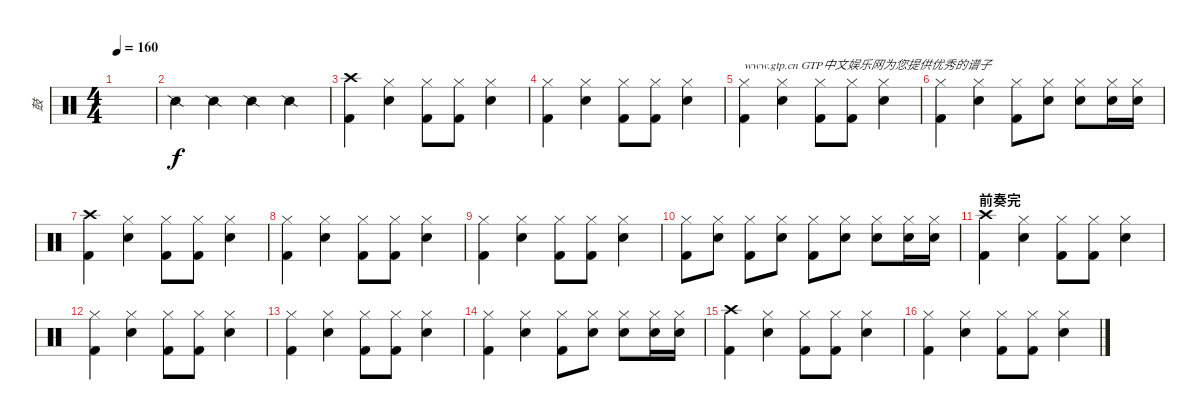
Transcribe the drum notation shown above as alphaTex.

\track ("鼓" "鼓") {instrument percussion}
\staff {score}
\articulation defaults
\ts (4 4)
\tempo 160
\clef neutral
\ks c
|
"Snare (side stick) 2".4 "Snare (side stick) 2".4 "Snare (side stick) 2".4 "Snare (side stick) 2".4 |
("Crash high (hit)" "Kick (hit) 2").4 ("Hi-Hat (closed)" "Snare (hit) 2").4 ("Hi-Hat (closed)" "Kick (hit) 2").8 ("Hi-Hat (closed)" "Kick (hit) 2").8 ("Hi-Hat (closed)" "Snare (hit) 2").4 |
("Hi-Hat (closed)" "Kick (hit) 2").4 ("Hi-Hat (closed)" "Snare (hit) 2").4 ("Hi-Hat (closed)" "Kick (hit) 2").8 ("Hi-Hat (closed)" "Kick (hit) 2").8 ("Hi-Hat (closed)" "Snare (hit) 2").4 |
("Hi-Hat (closed)" "Kick (hit) 2").4{txt "www.gtp.cn GTP中文娱乐网为您提供优秀的谱子"} ("Hi-Hat (closed)" "Snare (hit) 2").4 ("Hi-Hat (closed)" "Kick (hit) 2").8 ("Hi-Hat (closed)" "Kick (hit) 2").8 ("Hi-Hat (closed)" "Snare (hit) 2").4 |
("Hi-Hat (closed)" "Kick (hit) 2").4 ("Hi-Hat (closed)" "Snare (hit) 2").4 ("Hi-Hat (closed)" "Kick (hit) 2").8 ("Hi-Hat (closed)" "Snare (hit) 2").8 ("Hi-Hat (closed)" "Snare (hit) 2").8 ("Hi-Hat (closed)" "Snare (hit) 2").16 ("Hi-Hat (closed)" "Snare (hit) 2").16 |
("Crash high (hit)" "Kick (hit) 2").4 ("Hi-Hat (closed)" "Snare (hit) 2").4 ("Hi-Hat (closed)" "Kick (hit) 2").8 ("Hi-Hat (closed)" "Kick (hit) 2").8 ("Hi-Hat (closed)" "Snare (hit) 2").4 |
("Hi-Hat (closed)" "Kick (hit) 2").4 ("Hi-Hat (closed)" "Snare (hit) 2").4 ("Hi-Hat (closed)" "Kick (hit) 2").8 ("Hi-Hat (closed)" "Kick (hit) 2").8 ("Hi-Hat (closed)" "Snare (hit) 2").4 |
("Hi-Hat (closed)" "Kick (hit) 2").4 ("Hi-Hat (closed)" "Snare (hit) 2").4 ("Hi-Hat (closed)" "Kick (hit) 2").8 ("Hi-Hat (closed)" "Kick (hit) 2").8 ("Hi-Hat (closed)" "Snare (hit) 2").4 |
("Hi-Hat (closed)" "Kick (hit) 2").8 ("Hi-Hat (closed)" "Snare (hit) 2").8 ("Hi-Hat (closed)" "Kick (hit) 2").8 ("Hi-Hat (closed)" "Snare (hit) 2").8 ("Hi-Hat (closed)" "Kick (hit) 2").8 ("Hi-Hat (closed)" "Snare (hit) 2").8 ("Hi-Hat (closed)" "Snare (hit) 2").8 ("Hi-Hat (closed)" "Snare (hit) 2").16 ("Hi-Hat (closed)" "Snare (hit) 2").16 |
\section ("" "前奏完")
("Crash high (hit)" "Kick (hit) 2").4 ("Hi-Hat (closed)" "Snare (hit) 2").4 ("Hi-Hat (closed)" "Kick (hit) 2").8 ("Hi-Hat (closed)" "Kick (hit) 2").8 ("Hi-Hat (closed)" "Snare (hit) 2").4 |
("Hi-Hat (closed)" "Kick (hit) 2").4 ("Hi-Hat (closed)" "Snare (hit) 2").4 ("Hi-Hat (closed)" "Kick (hit) 2").8 ("Hi-Hat (closed)" "Kick (hit) 2").8 ("Hi-Hat (closed)" "Snare (hit) 2").4 |
("Hi-Hat (closed)" "Kick (hit) 2").4 ("Hi-Hat (closed)" "Snare (hit) 2").4 ("Hi-Hat (closed)" "Kick (hit) 2").8 ("Hi-Hat (closed)" "Kick (hit) 2").8 ("Hi-Hat (closed)" "Snare (hit) 2").4 |
("Hi-Hat (closed)" "Kick (hit) 2").4 ("Hi-Hat (closed)" "Snare (hit) 2").4 ("Hi-Hat (closed)" "Kick (hit) 2").8 ("Hi-Hat (closed)" "Snare (hit) 2").8 ("Hi-Hat (closed)" "Snare (hit) 2").8 ("Hi-Hat (closed)" "Snare (hit) 2").16 ("Hi-Hat (closed)" "Snare (hit) 2").16 |
("Crash high (hit)" "Kick (hit) 2").4 ("Hi-Hat (closed)" "Snare (hit) 2").4 ("Hi-Hat (closed)" "Kick (hit) 2").8 ("Hi-Hat (closed)" "Kick (hit) 2").8 ("Hi-Hat (closed)" "Snare (hit) 2").4 |
("Hi-Hat (closed)" "Kick (hit) 2").4 ("Hi-Hat (closed)" "Snare (hit) 2").4 ("Hi-Hat (closed)" "Kick (hit) 2").8 ("Hi-Hat (closed)" "Kick (hit) 2").8 ("Hi-Hat (closed)" "Snare (hit) 2").4
